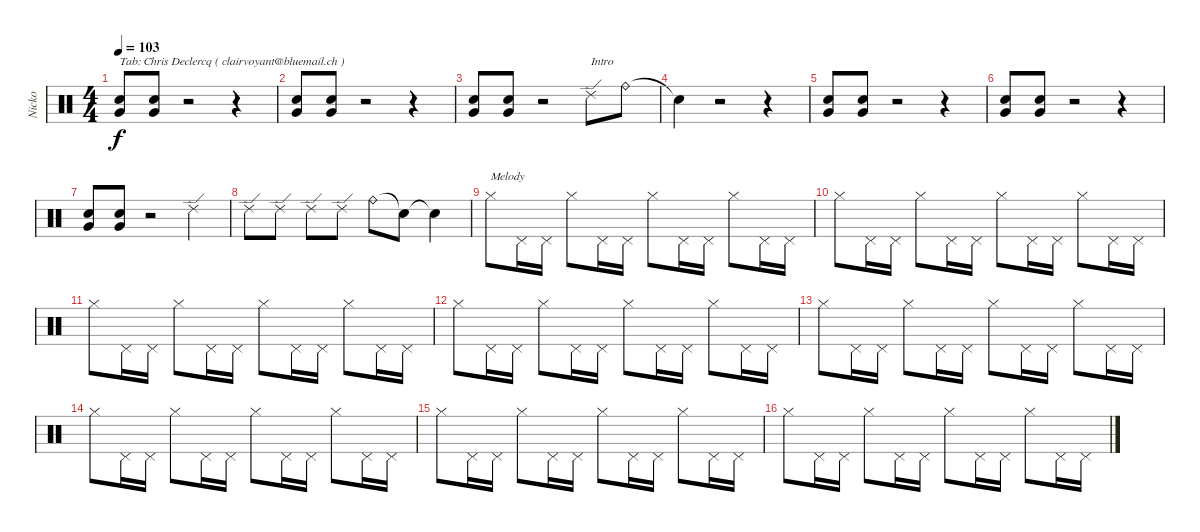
\track ("Nicko" "Nicko") {instrument percussion}
\staff {score}
\articulation defaults
\ts (4 4)
\tempo 103
\clef neutral
\ks c
("Snare (hit) 2" "Very Low Tom (hit)").8{txt "Tab: Chris Declercq ( clairvoyant@bluemail.ch )" dy f} ("Snare (hit) 2" "Very Low Tom (hit)").8 r.2 r.4 |
("Snare (hit) 2" "Very Low Tom (hit)").8 ("Snare (hit) 2" "Very Low Tom (hit)").8 r.2 r.4 |
("Snare (hit) 2" "Very Low Tom (hit)").8 ("Snare (hit) 2" "Very Low Tom (hit)").8 r.2 "Ride (edge) 2".8{txt "Intro"} "Ride (bell)".8 |
"Snare (hit)"{t}.4 r.2 r.4 |
("Snare (hit) 2" "Very Low Tom (hit)").8 ("Snare (hit) 2" "Very Low Tom (hit)").8 r.2 r.4 |
("Snare (hit) 2" "Very Low Tom (hit)").8 ("Snare (hit) 2" "Very Low Tom (hit)").8 r.2 r.4 |
("Snare (hit) 2" "Very Low Tom (hit)").8 ("Snare (hit) 2" "Very Low Tom (hit)").8 r.2 "Ride (edge) 2".4 |
"Ride (edge) 2".8 "Ride (edge) 2".8 "Ride (edge) 2".8 "Ride (edge) 2".8 "Ride (bell)".8 "Snare (hit)"{t}.8 "Snare (hit)"{t}.4 |
"Hi-Hat (closed)".8{txt "Melody"} "Pedal Hi-Hat (hit)".16 "Pedal Hi-Hat (hit)".16 "Hi-Hat (closed)".8 "Pedal Hi-Hat (hit)".16 "Pedal Hi-Hat (hit)".16 "Hi-Hat (closed)".8 "Pedal Hi-Hat (hit)".16 "Pedal Hi-Hat (hit)".16 "Hi-Hat (closed)".8 "Pedal Hi-Hat (hit)".16 "Pedal Hi-Hat (hit)".16 |
"Hi-Hat (closed)".8 "Pedal Hi-Hat (hit)".16 "Pedal Hi-Hat (hit)".16 "Hi-Hat (closed)".8 "Pedal Hi-Hat (hit)".16 "Pedal Hi-Hat (hit)".16 "Hi-Hat (closed)".8 "Pedal Hi-Hat (hit)".16 "Pedal Hi-Hat (hit)".16 "Hi-Hat (closed)".8 "Pedal Hi-Hat (hit)".16 "Pedal Hi-Hat (hit)".16 |
"Hi-Hat (closed)".8 "Pedal Hi-Hat (hit)".16 "Pedal Hi-Hat (hit)".16 "Hi-Hat (closed)".8 "Pedal Hi-Hat (hit)".16 "Pedal Hi-Hat (hit)".16 "Hi-Hat (closed)".8 "Pedal Hi-Hat (hit)".16 "Pedal Hi-Hat (hit)".16 "Hi-Hat (closed)".8 "Pedal Hi-Hat (hit)".16 "Pedal Hi-Hat (hit)".16 |
"Hi-Hat (closed)".8 "Pedal Hi-Hat (hit)".16 "Pedal Hi-Hat (hit)".16 "Hi-Hat (closed)".8 "Pedal Hi-Hat (hit)".16 "Pedal Hi-Hat (hit)".16 "Hi-Hat (closed)".8 "Pedal Hi-Hat (hit)".16 "Pedal Hi-Hat (hit)".16 "Hi-Hat (closed)".8 "Pedal Hi-Hat (hit)".16 "Pedal Hi-Hat (hit)".16 |
"Hi-Hat (closed)".8 "Pedal Hi-Hat (hit)".16 "Pedal Hi-Hat (hit)".16 "Hi-Hat (closed)".8 "Pedal Hi-Hat (hit)".16 "Pedal Hi-Hat (hit)".16 "Hi-Hat (closed)".8 "Pedal Hi-Hat (hit)".16 "Pedal Hi-Hat (hit)".16 "Hi-Hat (closed)".8 "Pedal Hi-Hat (hit)".16 "Pedal Hi-Hat (hit)".16 |
"Hi-Hat (closed)".8 "Pedal Hi-Hat (hit)".16 "Pedal Hi-Hat (hit)".16 "Hi-Hat (closed)".8 "Pedal Hi-Hat (hit)".16 "Pedal Hi-Hat (hit)".16 "Hi-Hat (closed)".8 "Pedal Hi-Hat (hit)".16 "Pedal Hi-Hat (hit)".16 "Hi-Hat (closed)".8 "Pedal Hi-Hat (hit)".16 "Pedal Hi-Hat (hit)".16 |
"Hi-Hat (closed)".8 "Pedal Hi-Hat (hit)".16 "Pedal Hi-Hat (hit)".16 "Hi-Hat (closed)".8 "Pedal Hi-Hat (hit)".16 "Pedal Hi-Hat (hit)".16 "Hi-Hat (closed)".8 "Pedal Hi-Hat (hit)".16 "Pedal Hi-Hat (hit)".16 "Hi-Hat (closed)".8 "Pedal Hi-Hat (hit)".16 "Pedal Hi-Hat (hit)".16 |
"Hi-Hat (closed)".8 "Pedal Hi-Hat (hit)".16 "Pedal Hi-Hat (hit)".16 "Hi-Hat (closed)".8 "Pedal Hi-Hat (hit)".16 "Pedal Hi-Hat (hit)".16 "Hi-Hat (closed)".8 "Pedal Hi-Hat (hit)".16 "Pedal Hi-Hat (hit)".16 "Hi-Hat (closed)".8 "Pedal Hi-Hat (hit)".16 "Pedal Hi-Hat (hit)".16
